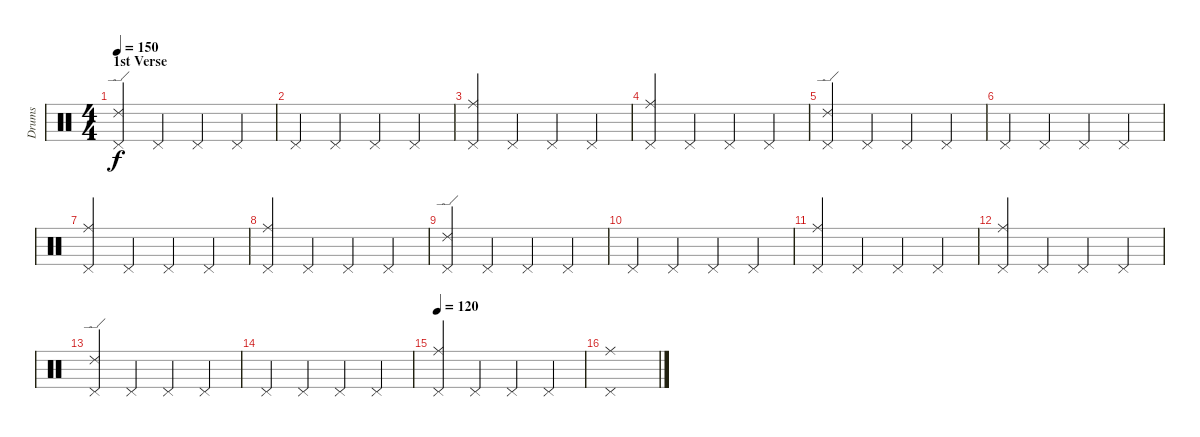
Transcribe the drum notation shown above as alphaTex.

\track ("Drums" "Drums") {instrument percussion}
\staff {score}
\articulation defaults
\ts (4 4)
\section ("" "1st Verse")
\tempo 150
\clef neutral
\ks c
("Ride (edge) 2" "Pedal Hi-Hat (hit)").4{dy f} "Pedal Hi-Hat (hit)".4 "Pedal Hi-Hat (hit)".4 "Pedal Hi-Hat (hit)".4 |
"Pedal Hi-Hat (hit)".4 "Pedal Hi-Hat (hit)".4 "Pedal Hi-Hat (hit)".4 "Pedal Hi-Hat (hit)".4 |
("Ride (middle)" "Pedal Hi-Hat (hit)").4 "Pedal Hi-Hat (hit)".4 "Pedal Hi-Hat (hit)".4 "Pedal Hi-Hat (hit)".4 |
("Ride (middle)" "Pedal Hi-Hat (hit)").4 "Pedal Hi-Hat (hit)".4 "Pedal Hi-Hat (hit)".4 "Pedal Hi-Hat (hit)".4 |
("Ride (edge) 2" "Pedal Hi-Hat (hit)").4 "Pedal Hi-Hat (hit)".4 "Pedal Hi-Hat (hit)".4 "Pedal Hi-Hat (hit)".4 |
"Pedal Hi-Hat (hit)".4 "Pedal Hi-Hat (hit)".4 "Pedal Hi-Hat (hit)".4 "Pedal Hi-Hat (hit)".4 |
("Ride (middle)" "Pedal Hi-Hat (hit)").4 "Pedal Hi-Hat (hit)".4 "Pedal Hi-Hat (hit)".4 "Pedal Hi-Hat (hit)".4 |
("Ride (middle)" "Pedal Hi-Hat (hit)").4 "Pedal Hi-Hat (hit)".4 "Pedal Hi-Hat (hit)".4 "Pedal Hi-Hat (hit)".4 |
("Ride (edge) 2" "Pedal Hi-Hat (hit)").4 "Pedal Hi-Hat (hit)".4 "Pedal Hi-Hat (hit)".4 "Pedal Hi-Hat (hit)".4 |
"Pedal Hi-Hat (hit)".4 "Pedal Hi-Hat (hit)".4 "Pedal Hi-Hat (hit)".4 "Pedal Hi-Hat (hit)".4 |
("Ride (middle)" "Pedal Hi-Hat (hit)").4 "Pedal Hi-Hat (hit)".4 "Pedal Hi-Hat (hit)".4 "Pedal Hi-Hat (hit)".4 |
("Ride (middle)" "Pedal Hi-Hat (hit)").4 "Pedal Hi-Hat (hit)".4 "Pedal Hi-Hat (hit)".4 "Pedal Hi-Hat (hit)".4 |
("Ride (edge) 2" "Pedal Hi-Hat (hit)").4 "Pedal Hi-Hat (hit)".4 "Pedal Hi-Hat (hit)".4 "Pedal Hi-Hat (hit)".4 |
"Pedal Hi-Hat (hit)".4 "Pedal Hi-Hat (hit)".4 "Pedal Hi-Hat (hit)".4 "Pedal Hi-Hat (hit)".4 |
\tempo 120
("Ride (middle)" "Pedal Hi-Hat (hit)").4 "Pedal Hi-Hat (hit)".4 "Pedal Hi-Hat (hit)".4 "Pedal Hi-Hat (hit)".4 |
("Ride (middle)" "Pedal Hi-Hat (hit)").1
